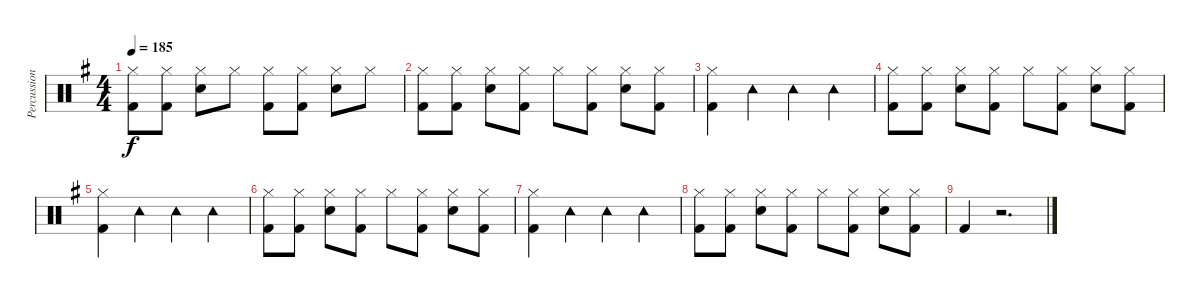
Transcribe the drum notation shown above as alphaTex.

\track ("Percussion" "Percussion") {instrument percussion}
\staff {score}
\articulation defaults
\ts (4 4)
\tempo 185
\clef neutral
\ks g
("Hi-Hat (closed)" "Kick (hit) 2").8{dy f} ("Hi-Hat (closed)" "Kick (hit) 2").8 ("Hi-Hat (closed)" "Snare (hit) 2").8 "Hi-Hat (closed)".8 ("Hi-Hat (closed)" "Kick (hit) 2").8 ("Hi-Hat (closed)" "Kick (hit) 2").8 ("Hi-Hat (closed)" "Snare (hit) 2").8 "Hi-Hat (closed)".8 |
("Hi-Hat (closed)" "Kick (hit) 2").8 ("Hi-Hat (closed)" "Kick (hit) 2").8 ("Hi-Hat (closed)" "Snare (hit) 2").8 ("Hi-Hat (closed)" "Kick (hit) 2").8 "Hi-Hat (closed)".8 ("Hi-Hat (closed)" "Kick (hit) 2").8 ("Hi-Hat (closed)" "Snare (hit) 2").8 ("Hi-Hat (closed)" "Kick (hit) 2").8 |
("Hi-Hat (closed)" "Kick (hit) 2").4 "Tambourine (hit)".4 "Tambourine (hit)".4 "Tambourine (hit)".4 |
("Hi-Hat (closed)" "Kick (hit) 2").8 ("Hi-Hat (closed)" "Kick (hit) 2").8 ("Hi-Hat (closed)" "Snare (hit) 2").8 ("Hi-Hat (closed)" "Kick (hit) 2").8 "Hi-Hat (closed)".8 ("Hi-Hat (closed)" "Kick (hit) 2").8 ("Hi-Hat (closed)" "Snare (hit) 2").8 ("Hi-Hat (closed)" "Kick (hit) 2").8 |
("Hi-Hat (closed)" "Kick (hit) 2").4 "Tambourine (hit)".4 "Tambourine (hit)".4 "Tambourine (hit)".4 |
("Hi-Hat (closed)" "Kick (hit) 2").8 ("Hi-Hat (closed)" "Kick (hit) 2").8 ("Hi-Hat (closed)" "Snare (hit) 2").8 ("Hi-Hat (closed)" "Kick (hit) 2").8 "Hi-Hat (closed)".8 ("Hi-Hat (closed)" "Kick (hit) 2").8 ("Hi-Hat (closed)" "Snare (hit) 2").8 ("Hi-Hat (closed)" "Kick (hit) 2").8 |
("Hi-Hat (closed)" "Kick (hit) 2").4 "Tambourine (hit)".4 "Tambourine (hit)".4 "Tambourine (hit)".4 |
("Hi-Hat (closed)" "Kick (hit) 2").8 ("Hi-Hat (closed)" "Kick (hit) 2").8 ("Hi-Hat (closed)" "Snare (hit) 2").8 ("Hi-Hat (closed)" "Kick (hit) 2").8 "Hi-Hat (closed)".8 ("Hi-Hat (closed)" "Kick (hit) 2").8 ("Hi-Hat (closed)" "Snare (hit) 2").8 ("Hi-Hat (closed)" "Kick (hit) 2").8 |
"Kick (hit) 2".4 r.2{d}
